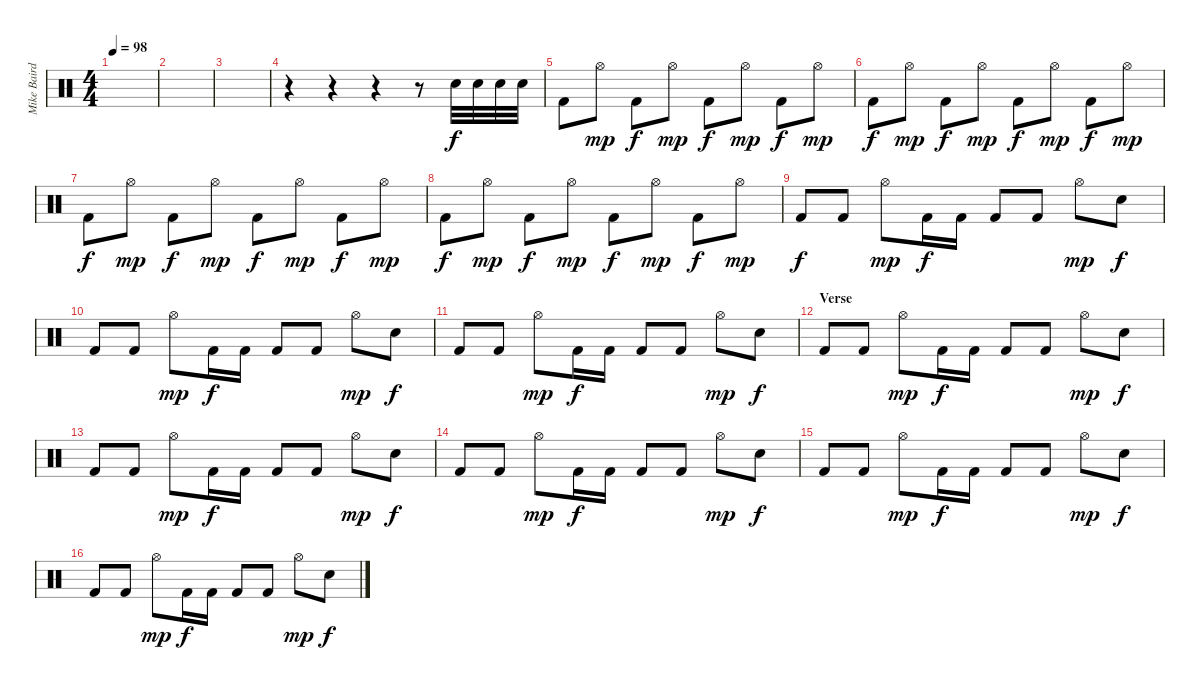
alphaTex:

\track ("Mike Baird [drums]" "Mike Baird") {instrument percussion}
\staff {score}
\articulation defaults
\ts (4 4)
\tempo 98
\clef neutral
\ks c
|
|
|
r.4 r.4 r.4 r.8 "Electric Snare (hit)".32 "Electric Snare (hit)".32 "Electric Snare (hit)".32 "Electric Snare (hit)".32 |
"Kick (hit) 2".8{dy f} "Hi-Hat (open)".8{dy mp} "Kick (hit) 2".8{dy f} "Hi-Hat (open)".8{dy mp} "Kick (hit) 2".8{dy f} "Hi-Hat (open)".8{dy mp} "Kick (hit) 2".8{dy f} "Hi-Hat (open)".8{dy mp} |
"Kick (hit) 2".8{dy f} "Hi-Hat (open)".8{dy mp} "Kick (hit) 2".8{dy f} "Hi-Hat (open)".8{dy mp} "Kick (hit) 2".8{dy f} "Hi-Hat (open)".8{dy mp} "Kick (hit) 2".8{dy f} "Hi-Hat (open)".8{dy mp} |
"Kick (hit) 2".8{dy f} "Hi-Hat (open)".8{dy mp} "Kick (hit) 2".8{dy f} "Hi-Hat (open)".8{dy mp} "Kick (hit) 2".8{dy f} "Hi-Hat (open)".8{dy mp} "Kick (hit) 2".8{dy f} "Hi-Hat (open)".8{dy mp} |
"Kick (hit) 2".8{dy f} "Hi-Hat (open)".8{dy mp} "Kick (hit) 2".8{dy f} "Hi-Hat (open)".8{dy mp} "Kick (hit) 2".8{dy f} "Hi-Hat (open)".8{dy mp} "Kick (hit) 2".8{dy f} "Hi-Hat (open)".8{dy mp} |
"Kick (hit) 2".8{dy f} "Kick (hit) 2".8 "Hi-Hat (open)".8{dy mp} "Kick (hit) 2".16{dy f} "Kick (hit) 2".16 "Kick (hit) 2".8 "Kick (hit) 2".8 "Hi-Hat (open)".8{dy mp} "Electric Snare (hit)".8{dy f} |
"Kick (hit) 2".8 "Kick (hit) 2".8 "Hi-Hat (open)".8{dy mp} "Kick (hit) 2".16{dy f} "Kick (hit) 2".16 "Kick (hit) 2".8 "Kick (hit) 2".8 "Hi-Hat (open)".8{dy mp} "Electric Snare (hit)".8{dy f} |
"Kick (hit) 2".8 "Kick (hit) 2".8 "Hi-Hat (open)".8{dy mp} "Kick (hit) 2".16{dy f} "Kick (hit) 2".16 "Kick (hit) 2".8 "Kick (hit) 2".8 "Hi-Hat (open)".8{dy mp} "Electric Snare (hit)".8{dy f} |
\section ("" "Verse")
"Kick (hit) 2".8 "Kick (hit) 2".8 "Hi-Hat (open)".8{dy mp} "Kick (hit) 2".16{dy f} "Kick (hit) 2".16 "Kick (hit) 2".8 "Kick (hit) 2".8 "Hi-Hat (open)".8{dy mp} "Electric Snare (hit)".8{dy f} |
"Kick (hit) 2".8 "Kick (hit) 2".8 "Hi-Hat (open)".8{dy mp} "Kick (hit) 2".16{dy f} "Kick (hit) 2".16 "Kick (hit) 2".8 "Kick (hit) 2".8 "Hi-Hat (open)".8{dy mp} "Electric Snare (hit)".8{dy f} |
"Kick (hit) 2".8 "Kick (hit) 2".8 "Hi-Hat (open)".8{dy mp} "Kick (hit) 2".16{dy f} "Kick (hit) 2".16 "Kick (hit) 2".8 "Kick (hit) 2".8 "Hi-Hat (open)".8{dy mp} "Electric Snare (hit)".8{dy f} |
"Kick (hit) 2".8 "Kick (hit) 2".8 "Hi-Hat (open)".8{dy mp} "Kick (hit) 2".16{dy f} "Kick (hit) 2".16 "Kick (hit) 2".8 "Kick (hit) 2".8 "Hi-Hat (open)".8{dy mp} "Electric Snare (hit)".8{dy f} |
"Kick (hit) 2".8 "Kick (hit) 2".8 "Hi-Hat (open)".8{dy mp} "Kick (hit) 2".16{dy f} "Kick (hit) 2".16 "Kick (hit) 2".8 "Kick (hit) 2".8 "Hi-Hat (open)".8{dy mp} "Electric Snare (hit)".8{dy f}
